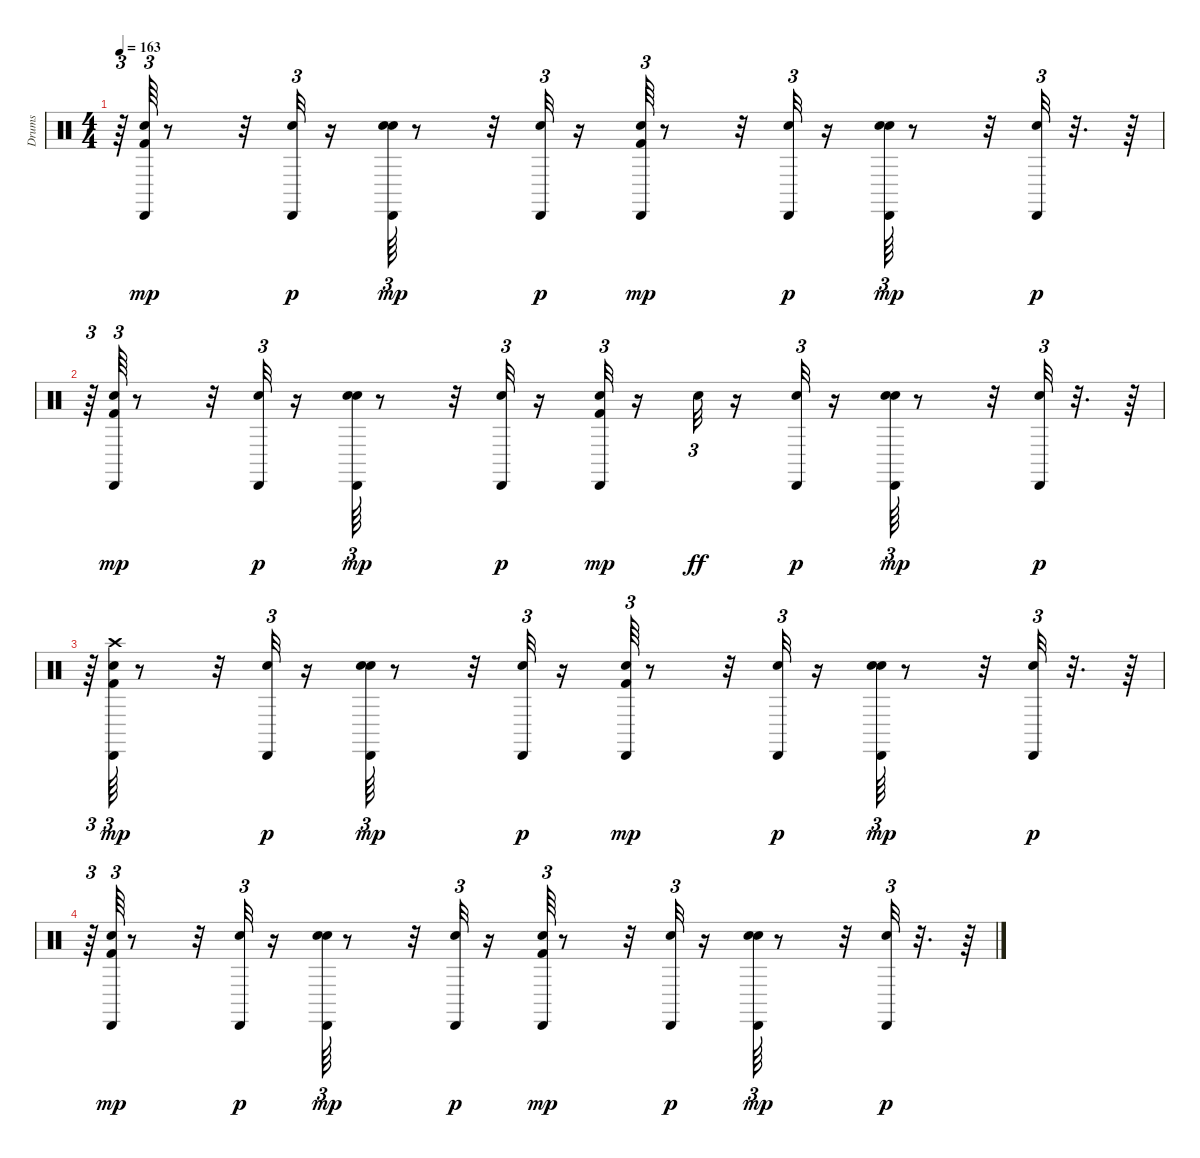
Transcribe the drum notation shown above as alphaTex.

\track ("Drums               " "Drums     ") {instrument percussion}
\staff {score}
\articulation defaults
\ts (4 4)
\tempo 163
\clef neutral
\ks c
r.64{tu (3 2) dy p} ("Kick (hit) 2" "Snare (hit) 2" "Cabasa (hit)").64{tu (3 2) dy mp} r.8 r.32 ("Snare (hit) 2" "Cabasa (hit)").32{tu (3 2) dy p} r.16 ("Snare (hit) 2" "Hand Clap (hit)" "Cabasa (hit)").64{tu (3 2) dy mp} r.8 r.32 ("Snare (hit) 2" "Cabasa (hit)").32{tu (3 2) dy p} r.16 ("Kick (hit) 2" "Snare (hit) 2" "Cabasa (hit)").64{tu (3 2) dy mp} r.8 r.32 ("Snare (hit) 2" "Cabasa (hit)").32{tu (3 2) dy p} r.16 ("Snare (hit) 2" "Hand Clap (hit)" "Cabasa (hit)").64{tu (3 2) dy mp} r.8 r.32 ("Snare (hit) 2" "Cabasa (hit)").32{tu (3 2) dy p} r.32{d} r.64 |
r.64{tu (3 2)} ("Kick (hit) 2" "Snare (hit) 2" "Cabasa (hit)").64{tu (3 2) dy mp} r.8 r.32 ("Snare (hit) 2" "Cabasa (hit)").32{tu (3 2) dy p} r.16 ("Snare (hit) 2" "Hand Clap (hit)" "Cabasa (hit)").64{tu (3 2) dy mp} r.8 r.32 ("Snare (hit) 2" "Cabasa (hit)").32{tu (3 2) dy p} r.16 ("Kick (hit) 2" "Snare (hit) 2" "Cabasa (hit)").32{tu (3 2) dy mp} r.16 "Snare (hit) 2".32{tu (3 2) dy ff} r.16 ("Snare (hit) 2" "Cabasa (hit)").32{tu (3 2) dy p} r.16 ("Snare (hit) 2" "Hand Clap (hit)" "Cabasa (hit)").64{tu (3 2) dy mp} r.8 r.32 ("Snare (hit) 2" "Cabasa (hit)").32{tu (3 2) dy p} r.32{d} r.64 |
r.64{tu (3 2)} ("Kick (hit) 2" "Snare (hit) 2" "Crash high (hit)" "Cabasa (hit)").64{tu (3 2) dy mp} r.8 r.32 ("Snare (hit) 2" "Cabasa (hit)").32{tu (3 2) dy p} r.16 ("Snare (hit) 2" "Hand Clap (hit)" "Cabasa (hit)").64{tu (3 2) dy mp} r.8 r.32 ("Snare (hit) 2" "Cabasa (hit)").32{tu (3 2) dy p} r.16 ("Kick (hit) 2" "Snare (hit) 2" "Cabasa (hit)").64{tu (3 2) dy mp} r.8 r.32 ("Snare (hit) 2" "Cabasa (hit)").32{tu (3 2) dy p} r.16 ("Snare (hit) 2" "Hand Clap (hit)" "Cabasa (hit)").64{tu (3 2) dy mp} r.8 r.32 ("Snare (hit) 2" "Cabasa (hit)").32{tu (3 2) dy p} r.32{d} r.64 |
r.64{tu (3 2)} ("Kick (hit) 2" "Snare (hit) 2" "Cabasa (hit)").64{tu (3 2) dy mp} r.8 r.32 ("Snare (hit) 2" "Cabasa (hit)").32{tu (3 2) dy p} r.16 ("Snare (hit) 2" "Hand Clap (hit)" "Cabasa (hit)").64{tu (3 2) dy mp} r.8 r.32 ("Snare (hit) 2" "Cabasa (hit)").32{tu (3 2) dy p} r.16 ("Kick (hit) 2" "Snare (hit) 2" "Cabasa (hit)").64{tu (3 2) dy mp} r.8 r.32 ("Snare (hit) 2" "Cabasa (hit)").32{tu (3 2) dy p} r.16 ("Snare (hit) 2" "Hand Clap (hit)" "Cabasa (hit)").64{tu (3 2) dy mp} r.8 r.32 ("Snare (hit) 2" "Cabasa (hit)").32{tu (3 2) dy p} r.32{d} r.64
